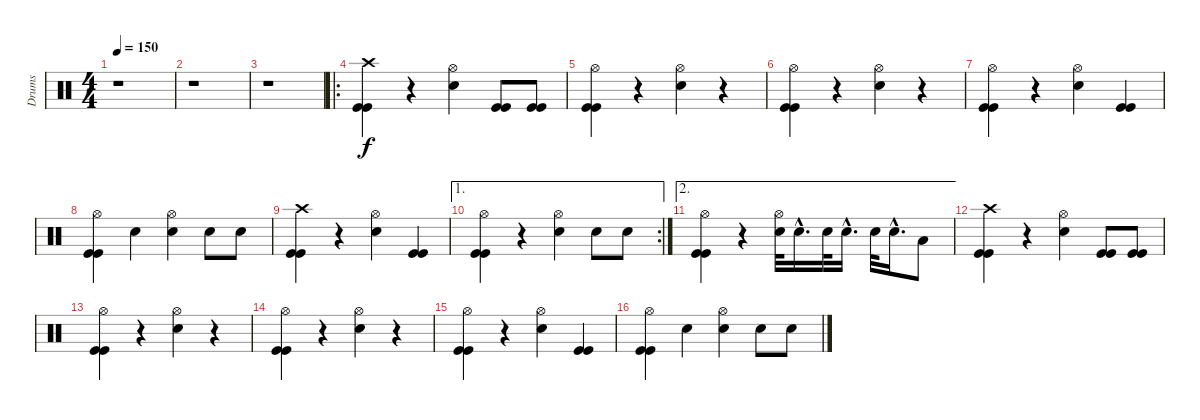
\track ("Drums" "Drums") {instrument percussion}
\staff {score}
\articulation defaults
\ts (4 4)
\tempo 150
\clef neutral
\ks c
r.1{dy f} |
r.1 |
r.1 |
\ro
("Crash high (hit)" "Kick (hit)" "Kick (hit)").4 r.4 ("Hi-Hat (open)" "Snare (hit) 2").4 ("Kick (hit)" "Kick (hit)").8 ("Kick (hit)" "Kick (hit)").8 |
("Hi-Hat (open)" "Kick (hit)" "Kick (hit)").4 r.4 ("Hi-Hat (open)" "Snare (hit) 2").4 r.4 |
("Hi-Hat (open)" "Kick (hit)" "Kick (hit)").4 r.4 ("Hi-Hat (open)" "Snare (hit) 2").4 r.4 |
("Hi-Hat (open)" "Kick (hit)" "Kick (hit)").4 r.4 ("Hi-Hat (open)" "Snare (hit) 2").4 ("Kick (hit)" "Kick (hit)").4 |
("Hi-Hat (open)" "Kick (hit)" "Kick (hit)").4 "Snare (hit) 2".4 ("Hi-Hat (open)" "Snare (hit) 2").4 "Snare (hit) 2".8 "Snare (hit) 2".8 |
("Crash high (hit)" "Kick (hit)" "Kick (hit)").4 r.4 ("Hi-Hat (open)" "Snare (hit) 2").4 ("Kick (hit)" "Kick (hit)").4 |
\ae 1
\rc 2
("Hi-Hat (open)" "Kick (hit)" "Kick (hit)").4 r.4 ("Hi-Hat (open)" "Snare (hit) 2").4 "Snare (hit) 2".8 "Snare (hit) 2".8 |
\ae 2
("Hi-Hat (open)" "Kick (hit)" "Kick (hit)").4 r.4 ("Hi-Hat (open)" "Snare (hit) 2").32 "Snare (hit) 2"{hac}.16{d} "Snare (hit) 2".32 "Snare (hit) 2"{hac}.16{d} "Snare (hit) 2".32 "Snare (hit) 2"{hac}.16{d} "Low Tom (hit)".8 |
("Crash high (hit)" "Kick (hit)" "Kick (hit)").4 r.4 ("Hi-Hat (open)" "Snare (hit) 2").4 ("Kick (hit)" "Kick (hit)").8 ("Kick (hit)" "Kick (hit)").8 |
("Hi-Hat (open)" "Kick (hit)" "Kick (hit)").4 r.4 ("Hi-Hat (open)" "Snare (hit) 2").4 r.4 |
("Hi-Hat (open)" "Kick (hit)" "Kick (hit)").4 r.4 ("Hi-Hat (open)" "Snare (hit) 2").4 r.4 |
("Hi-Hat (open)" "Kick (hit)" "Kick (hit)").4 r.4 ("Hi-Hat (open)" "Snare (hit) 2").4 ("Kick (hit)" "Kick (hit)").4 |
("Hi-Hat (open)" "Kick (hit)" "Kick (hit)").4{volume 13} "Snare (hit) 2".4 ("Hi-Hat (open)" "Snare (hit) 2").4 "Snare (hit) 2".8 "Snare (hit) 2".8
